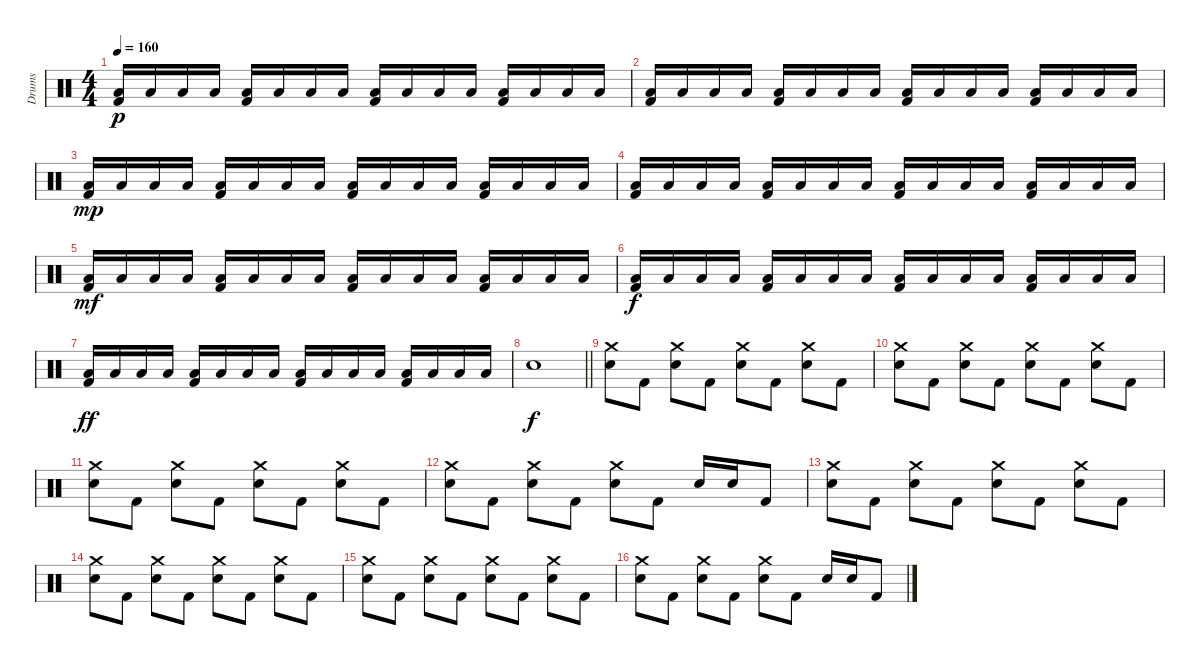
\track ("Drums" "Drums") {instrument percussion}
\staff {score}
\articulation defaults
\ts (4 4)
\tempo 160
\clef neutral
\ks c
("Low Tom (hit)" "Kick (hit) 2").16{dy p} "Low Floor Tom (hit)".16 "Low Tom (hit)".16 "Low Floor Tom (hit)".16 ("Low Tom (hit)" "Kick (hit) 2").16 "Low Floor Tom (hit)".16 "Low Tom (hit)".16 "Low Floor Tom (hit)".16 ("Low Tom (hit)" "Kick (hit) 2").16 "Low Floor Tom (hit)".16 "Low Tom (hit)".16 "Low Floor Tom (hit)".16 ("Low Tom (hit)" "Kick (hit) 2").16 "Low Floor Tom (hit)".16 "Low Tom (hit)".16 "Low Floor Tom (hit)".16 |
("Low Tom (hit)" "Kick (hit) 2").16 "Low Floor Tom (hit)".16 "Low Tom (hit)".16 "Low Floor Tom (hit)".16 ("Low Tom (hit)" "Kick (hit) 2").16 "Low Floor Tom (hit)".16 "Low Tom (hit)".16 "Low Floor Tom (hit)".16 ("Low Tom (hit)" "Kick (hit) 2").16 "Low Floor Tom (hit)".16 "Low Tom (hit)".16 "Low Floor Tom (hit)".16 ("Low Tom (hit)" "Kick (hit) 2").16 "Low Floor Tom (hit)".16 "Low Tom (hit)".16 "Low Floor Tom (hit)".16 |
("Low Tom (hit)" "Kick (hit) 2").16{dy mp} "Low Floor Tom (hit)".16 "Low Tom (hit)".16 "Low Floor Tom (hit)".16 ("Low Tom (hit)" "Kick (hit) 2").16 "Low Floor Tom (hit)".16 "Low Tom (hit)".16 "Low Floor Tom (hit)".16 ("Low Tom (hit)" "Kick (hit) 2").16 "Low Floor Tom (hit)".16 "Low Tom (hit)".16 "Low Floor Tom (hit)".16 ("Low Tom (hit)" "Kick (hit) 2").16 "Low Floor Tom (hit)".16 "Low Tom (hit)".16 "Low Floor Tom (hit)".16 |
("Low Tom (hit)" "Kick (hit) 2").16 "Low Floor Tom (hit)".16 "Low Tom (hit)".16 "Low Floor Tom (hit)".16 ("Low Tom (hit)" "Kick (hit) 2").16 "Low Floor Tom (hit)".16 "Low Tom (hit)".16 "Low Floor Tom (hit)".16 ("Low Tom (hit)" "Kick (hit) 2").16 "Low Floor Tom (hit)".16 "Low Tom (hit)".16 "Low Floor Tom (hit)".16 ("Low Tom (hit)" "Kick (hit) 2").16 "Low Floor Tom (hit)".16 "Low Tom (hit)".16 "Low Floor Tom (hit)".16 |
("Low Tom (hit)" "Kick (hit) 2").16{dy mf} "Low Floor Tom (hit)".16 "Low Tom (hit)".16 "Low Floor Tom (hit)".16 ("Low Tom (hit)" "Kick (hit) 2").16 "Low Floor Tom (hit)".16 "Low Tom (hit)".16 "Low Floor Tom (hit)".16 ("Low Tom (hit)" "Kick (hit) 2").16 "Low Floor Tom (hit)".16 "Low Tom (hit)".16 "Low Floor Tom (hit)".16 ("Low Tom (hit)" "Kick (hit) 2").16 "Low Floor Tom (hit)".16 "Low Tom (hit)".16 "Low Floor Tom (hit)".16 |
("Low Tom (hit)" "Kick (hit) 2").16{dy f} "Low Floor Tom (hit)".16 "Low Tom (hit)".16 "Low Floor Tom (hit)".16 ("Low Tom (hit)" "Kick (hit) 2").16 "Low Floor Tom (hit)".16 "Low Tom (hit)".16 "Low Floor Tom (hit)".16 ("Low Tom (hit)" "Kick (hit) 2").16 "Low Floor Tom (hit)".16 "Low Tom (hit)".16 "Low Floor Tom (hit)".16 ("Low Tom (hit)" "Kick (hit) 2").16 "Low Floor Tom (hit)".16 "Low Tom (hit)".16 "Low Floor Tom (hit)".16 |
("Low Tom (hit)" "Kick (hit) 2").16{dy ff} "Low Floor Tom (hit)".16 "Low Tom (hit)".16 "Low Floor Tom (hit)".16 ("Low Tom (hit)" "Kick (hit) 2").16 "Low Floor Tom (hit)".16 "Low Tom (hit)".16 "Low Floor Tom (hit)".16 ("Low Tom (hit)" "Kick (hit) 2").16 "Low Floor Tom (hit)".16 "Low Tom (hit)".16 "Low Floor Tom (hit)".16 ("Low Tom (hit)" "Kick (hit) 2").16 "Low Floor Tom (hit)".16 "Low Tom (hit)".16 "Low Floor Tom (hit)".16 |
\barLineRight lightlight "Electric Snare (hit)".1{dy f}
|
\section ("" "")
("Crash medium (hit)" "Electric Snare (hit)").8 "Kick (hit) 2".8 ("Crash medium (hit)" "Electric Snare (hit)").8 "Kick (hit) 2".8 ("Crash medium (hit)" "Electric Snare (hit)").8 "Kick (hit) 2".8 ("Crash medium (hit)" "Electric Snare (hit)").8 "Kick (hit) 2".8 |
("Crash medium (hit)" "Electric Snare (hit)").8 "Kick (hit) 2".8 ("Crash medium (hit)" "Electric Snare (hit)").8 "Kick (hit) 2".8 ("Crash medium (hit)" "Electric Snare (hit)").8 "Kick (hit) 2".8 ("Crash medium (hit)" "Electric Snare (hit)").8 "Kick (hit) 2".8 |
("Crash medium (hit)" "Electric Snare (hit)").8 "Kick (hit) 2".8 ("Crash medium (hit)" "Electric Snare (hit)").8 "Kick (hit) 2".8 ("Crash medium (hit)" "Electric Snare (hit)").8 "Kick (hit) 2".8 ("Crash medium (hit)" "Electric Snare (hit)").8 "Kick (hit) 2".8 |
("Crash medium (hit)" "Electric Snare (hit)").8 "Kick (hit) 2".8 ("Crash medium (hit)" "Electric Snare (hit)").8 "Kick (hit) 2".8 ("Crash medium (hit)" "Electric Snare (hit)").8 "Kick (hit) 2".8 "Electric Snare (hit)".16 "Electric Snare (hit)".16 "Kick (hit) 2".8 |
("Crash medium (hit)" "Electric Snare (hit)").8 "Kick (hit) 2".8 ("Crash medium (hit)" "Electric Snare (hit)").8 "Kick (hit) 2".8 ("Crash medium (hit)" "Electric Snare (hit)").8 "Kick (hit) 2".8 ("Crash medium (hit)" "Electric Snare (hit)").8 "Kick (hit) 2".8 |
("Crash medium (hit)" "Electric Snare (hit)").8 "Kick (hit) 2".8 ("Crash medium (hit)" "Electric Snare (hit)").8 "Kick (hit) 2".8 ("Crash medium (hit)" "Electric Snare (hit)").8 "Kick (hit) 2".8 ("Crash medium (hit)" "Electric Snare (hit)").8 "Kick (hit) 2".8 |
("Crash medium (hit)" "Electric Snare (hit)").8 "Kick (hit) 2".8 ("Crash medium (hit)" "Electric Snare (hit)").8 "Kick (hit) 2".8 ("Crash medium (hit)" "Electric Snare (hit)").8 "Kick (hit) 2".8 ("Crash medium (hit)" "Electric Snare (hit)").8 "Kick (hit) 2".8 |
("Crash medium (hit)" "Electric Snare (hit)").8 "Kick (hit) 2".8 ("Crash medium (hit)" "Electric Snare (hit)").8 "Kick (hit) 2".8 ("Crash medium (hit)" "Electric Snare (hit)").8 "Kick (hit) 2".8 "Electric Snare (hit)".16 "Electric Snare (hit)".16 "Kick (hit) 2".8
